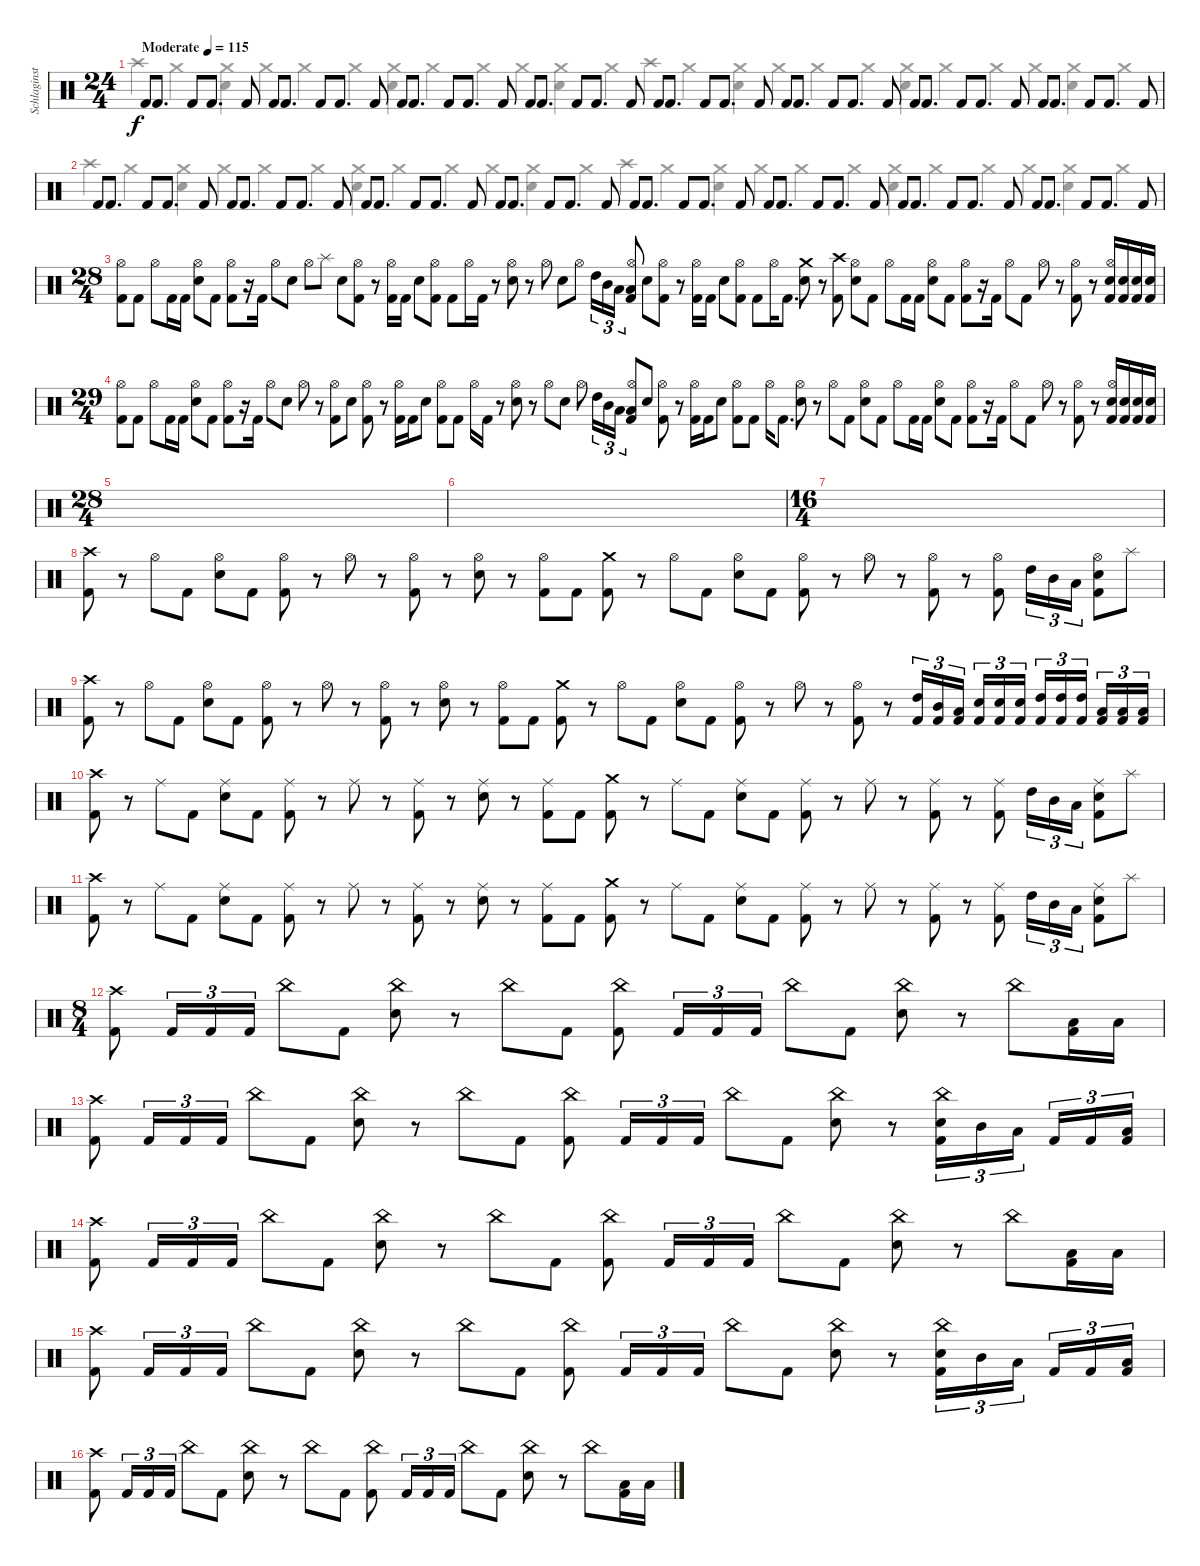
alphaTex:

\track ("Schlaginstrumente - Auswahl" "Schlaginst") {instrument percussion}
\staff {score}
\articulation defaults
\voice
\ts (24 4)
\tempo (115 "Moderate")
\clef neutral
\ks c "Kick (hit) 2".8{dy f} "Kick (hit) 2".8{d} "Kick (hit) 2".8 "Kick (hit) 2".8{d} "Kick (hit) 2".8 "Kick (hit) 2".8 "Kick (hit) 2".8{d} "Kick (hit) 2".8 "Kick (hit) 2".8{d} "Kick (hit) 2".8 "Kick (hit) 2".8 "Kick (hit) 2".8{d} "Kick (hit) 2".8 "Kick (hit) 2".8{d} "Kick (hit) 2".8 "Kick (hit) 2".8 "Kick (hit) 2".8{d} "Kick (hit) 2".8 "Kick (hit) 2".8{d} "Kick (hit) 2".8 "Kick (hit) 2".8 "Kick (hit) 2".8{d} "Kick (hit) 2".8 "Kick (hit) 2".8{d} "Kick (hit) 2".8 "Kick (hit) 2".8 "Kick (hit) 2".8{d} "Kick (hit) 2".8 "Kick (hit) 2".8{d} "Kick (hit) 2".8 "Kick (hit) 2".8 "Kick (hit) 2".8{d} "Kick (hit) 2".8 "Kick (hit) 2".8{d} "Kick (hit) 2".8 "Kick (hit) 2".8 "Kick (hit) 2".8{d} "Kick (hit) 2".8 "Kick (hit) 2".8{d} "Kick (hit) 2".8
|
"Kick (hit) 2".8 "Kick (hit) 2".8{d} "Kick (hit) 2".8 "Kick (hit) 2".8{d} "Kick (hit) 2".8 "Kick (hit) 2".8 "Kick (hit) 2".8{d} "Kick (hit) 2".8 "Kick (hit) 2".8{d} "Kick (hit) 2".8 "Kick (hit) 2".8 "Kick (hit) 2".8{d} "Kick (hit) 2".8 "Kick (hit) 2".8{d} "Kick (hit) 2".8 "Kick (hit) 2".8 "Kick (hit) 2".8{d} "Kick (hit) 2".8 "Kick (hit) 2".8{d} "Kick (hit) 2".8 "Kick (hit) 2".8 "Kick (hit) 2".8{d} "Kick (hit) 2".8 "Kick (hit) 2".8{d} "Kick (hit) 2".8 "Kick (hit) 2".8 "Kick (hit) 2".8{d} "Kick (hit) 2".8 "Kick (hit) 2".8{d} "Kick (hit) 2".8 "Kick (hit) 2".8 "Kick (hit) 2".8{d} "Kick (hit) 2".8 "Kick (hit) 2".8{d} "Kick (hit) 2".8 "Kick (hit) 2".8 "Kick (hit) 2".8{d} "Kick (hit) 2".8 "Kick (hit) 2".8{d} "Kick (hit) 2".8 |
\ts (28 4)
("Hi-Hat (open)" "Kick (hit) 2").8 "Kick (hit) 2".8 "Hi-Hat (open)".8 "Kick (hit) 2".16 "Kick (hit) 2".16 ("Hi-Hat (open)" "Snare (hit) 2").8 "Kick (hit) 2".8 ("Hi-Hat (open)" "Kick (hit) 2").8 r.16 "Kick (hit) 2".16 "Hi-Hat (open)".8 "Snare (hit) 2".8 "Hi-Hat (open)".8 "Splash (hit)".8 "Snare (hit) 2".8 ("Hi-Hat (open)" "Kick (hit) 2").8 r.8 ("Hi-Hat (open)" "Kick (hit) 2").16 "Kick (hit) 2".16 "Snare (hit) 2".8 ("Hi-Hat (open)" "Kick (hit) 2").8 "Kick (hit) 2".8 "Hi-Hat (open)".16 "Kick (hit) 2".16 r.8 ("Hi-Hat (open)" "Snare (hit) 2").8 r.8 "Hi-Hat (open)".8 "Snare (hit) 2".8 "Hi-Hat (open)".8 "High Tom (hit)".16{tu (3 2)} "Mid Tom (hit)".16{tu (3 2)} "Low Tom (hit)".16{tu (3 2)} ("Hi-Hat (open)" "Low Floor Tom (hit)" "Kick (hit) 2").8 "Snare (hit) 2".8 ("Hi-Hat (open)" "Kick (hit) 2").8 r.8 ("Hi-Hat (open)" "Kick (hit) 2").16 "Kick (hit) 2".16 "Snare (hit) 2".8 ("Hi-Hat (open)" "Kick (hit) 2").8 "Kick (hit) 2".8 "Hi-Hat (open)".16 "Kick (hit) 2".8{d} ("Crash medium (hit)" "Snare (hit) 2").8 r.8 ("Crash high (hit)" "Kick (hit) 2").8 ("Hi-Hat (open)" "Snare (hit) 2").8 "Kick (hit) 2".8 "Hi-Hat (open)".8 "Kick (hit) 2".16 "Kick (hit) 2".16 ("Hi-Hat (open)" "Snare (hit) 2").8 "Kick (hit) 2".8 ("Hi-Hat (open)" "Kick (hit) 2").8 r.16 "Kick (hit) 2".16 "Hi-Hat (open)".8 "Kick (hit) 2".8 "Hi-Hat (open)".8 r.8 ("Hi-Hat (open)" "Kick (hit) 2").8 r.8 ("Hi-Hat (open)" "Snare (hit) 2" "Kick (hit) 2").16 ("Snare (hit) 2" "Kick (hit) 2").16 ("Snare (hit) 2" "Kick (hit) 2").16 ("Snare (hit) 2" "Kick (hit) 2").16 |
\ts (29 4)
("Hi-Hat (open)" "Kick (hit) 2").8 "Kick (hit) 2".8 "Hi-Hat (open)".8 "Kick (hit) 2".16 "Kick (hit) 2".16 ("Hi-Hat (open)" "Snare (hit) 2").8 "Kick (hit) 2".8 ("Hi-Hat (open)" "Kick (hit) 2").8 r.16 "Kick (hit) 2".16 "Hi-Hat (open)".8 "Snare (hit) 2".8 "Hi-Hat (open)".8 r.8 ("Hi-Hat (open)" "Kick (hit) 2").8 "Snare (hit) 2".8 ("Hi-Hat (open)" "Kick (hit) 2").8 r.8 ("Hi-Hat (open)" "Kick (hit) 2").16 "Kick (hit) 2".16 "Snare (hit) 2".8 ("Hi-Hat (open)" "Kick (hit) 2").8 "Kick (hit) 2".8 "Hi-Hat (open)".16 "Kick (hit) 2".16 r.8 ("Hi-Hat (open)" "Snare (hit) 2").8 r.8 "Hi-Hat (open)".8 "Snare (hit) 2".8 "Hi-Hat (open)".8 "High Tom (hit)".16{tu (3 2)} "Mid Tom (hit)".16{tu (3 2)} "Low Tom (hit)".16{tu (3 2)} ("Hi-Hat (open)" "Low Floor Tom (hit)" "Kick (hit) 2").8 "Snare (hit) 2".8 ("Hi-Hat (open)" "Kick (hit) 2").8 r.8 ("Hi-Hat (open)" "Kick (hit) 2").16 "Kick (hit) 2".16 "Snare (hit) 2".8 ("Hi-Hat (open)" "Kick (hit) 2").8 "Kick (hit) 2".8 "Hi-Hat (open)".16 "Kick (hit) 2".8{d} ("Hi-Hat (open)" "Snare (hit) 2").8 r.8 "Hi-Hat (open)".8 "Kick (hit) 2".8 ("Hi-Hat (open)" "Snare (hit) 2").8 "Kick (hit) 2".8 "Hi-Hat (open)".8 "Kick (hit) 2".16 "Kick (hit) 2".16 ("Hi-Hat (open)" "Snare (hit) 2").8 "Kick (hit) 2".8 ("Hi-Hat (open)" "Kick (hit) 2").8 r.16 "Kick (hit) 2".16 "Hi-Hat (open)".8 "Kick (hit) 2".8 "Hi-Hat (open)".8 r.8 ("Hi-Hat (open)" "Kick (hit) 2").8 r.8 ("Hi-Hat (open)" "Snare (hit) 2" "Kick (hit) 2").16 ("Snare (hit) 2" "Kick (hit) 2").16 ("Snare (hit) 2" "Kick (hit) 2").16 ("Snare (hit) 2" "Kick (hit) 2").16 |
\ts (28 4)
|
|
\ts (16 4)
|
("Crash high (hit)" "Kick (hit) 2").8 r.8 "Hi-Hat (open)".8 "Kick (hit) 2".8 ("Hi-Hat (open)" "Snare (hit) 2").8 "Kick (hit) 2".8 ("Hi-Hat (open)" "Kick (hit) 2").8 r.8 "Hi-Hat (open)".8 r.8 ("Hi-Hat (open)" "Kick (hit) 2").8 r.8 ("Hi-Hat (open)" "Snare (hit) 2").8 r.8 ("Hi-Hat (open)" "Kick (hit) 2").8 "Kick (hit) 2".8 ("Crash medium (hit)" "Kick (hit) 2").8 r.8 "Hi-Hat (open)".8 "Kick (hit) 2".8 ("Hi-Hat (open)" "Snare (hit) 2").8 "Kick (hit) 2".8 ("Hi-Hat (open)" "Kick (hit) 2").8 r.8 "Hi-Hat (open)".8 r.8 ("Hi-Hat (open)" "Kick (hit) 2").8 r.8 ("Hi-Hat (open)" "Kick (hit) 2").8 "High Tom (hit)".16{tu (3 2)} "Mid Tom (hit)".16{tu (3 2)} "Low Tom (hit)".16{tu (3 2)} ("Hi-Hat (open)" "Snare (hit) 2" "Kick (hit) 2").8 "Splash (hit)".8 |
("Crash high (hit)" "Kick (hit) 2").8 r.8 "Hi-Hat (open)".8 "Kick (hit) 2".8 ("Hi-Hat (open)" "Snare (hit) 2").8 "Kick (hit) 2".8 ("Hi-Hat (open)" "Kick (hit) 2").8 r.8 "Hi-Hat (open)".8 r.8 ("Hi-Hat (open)" "Kick (hit) 2").8 r.8 ("Hi-Hat (open)" "Snare (hit) 2").8 r.8 ("Hi-Hat (open)" "Kick (hit) 2").8 "Kick (hit) 2".8 ("Crash medium (hit)" "Kick (hit) 2").8 r.8 "Hi-Hat (open)".8 "Kick (hit) 2".8 ("Hi-Hat (open)" "Snare (hit) 2").8 "Kick (hit) 2".8 ("Hi-Hat (open)" "Kick (hit) 2").8 r.8 "Hi-Hat (open)".8 r.8 ("Hi-Hat (open)" "Kick (hit) 2").8 r.8 ("High Tom (hit)" "Kick (hit) 2").16{tu (3 2)} ("Mid Tom (hit)" "Kick (hit) 2").16{tu (3 2)} ("Low Tom (hit)" "Kick (hit) 2").16{tu (3 2) beam splitsecondary} ("Snare (hit) 2" "Kick (hit) 2").16{tu (3 2)} ("Snare (hit) 2" "Kick (hit) 2").16{tu (3 2)} ("Snare (hit) 2" "Kick (hit) 2").16{tu (3 2)} ("High Tom (hit)" "Kick (hit) 2").16{tu (3 2)} ("High Tom (hit)" "Kick (hit) 2").16{tu (3 2)} ("High Tom (hit)" "Kick (hit) 2").16{tu (3 2) beam splitsecondary} ("Low Tom (hit)" "Kick (hit) 2").16{tu (3 2)} ("Low Tom (hit)" "Kick (hit) 2").16{tu (3 2)} ("Low Tom (hit)" "Kick (hit) 2").16{tu (3 2)} |
("Crash high (hit)" "Kick (hit) 2").8 r.8 "Ride (middle)".8 "Kick (hit) 2".8 ("Ride (middle)" "Snare (hit) 2").8 "Kick (hit) 2".8 ("Ride (middle)" "Kick (hit) 2").8 r.8 "Ride (middle)".8 r.8 ("Ride (middle)" "Kick (hit) 2").8 r.8 ("Ride (middle)" "Snare (hit) 2").8 r.8 ("Ride (middle)" "Kick (hit) 2").8 "Kick (hit) 2".8 ("Crash medium (hit)" "Kick (hit) 2").8 r.8 "Ride (middle)".8 "Kick (hit) 2".8 ("Ride (middle)" "Snare (hit) 2").8 "Kick (hit) 2".8 ("Ride (middle)" "Kick (hit) 2").8 r.8 "Ride (middle)".8 r.8 ("Ride (middle)" "Kick (hit) 2").8 r.8 ("Ride (middle)" "Kick (hit) 2").8 "High Tom (hit)".16{tu (3 2)} "Mid Tom (hit)".16{tu (3 2)} "Low Tom (hit)".16{tu (3 2)} ("Ride (middle)" "Snare (hit) 2" "Kick (hit) 2").8 "Splash (hit)".8 |
("Crash high (hit)" "Kick (hit) 2").8 r.8 "Ride (middle)".8 "Kick (hit) 2".8 ("Ride (middle)" "Snare (hit) 2").8 "Kick (hit) 2".8 ("Ride (middle)" "Kick (hit) 2").8 r.8 "Ride (middle)".8 r.8 ("Ride (middle)" "Kick (hit) 2").8 r.8 ("Ride (middle)" "Snare (hit) 2").8 r.8 ("Ride (middle)" "Kick (hit) 2").8 "Kick (hit) 2".8 ("Crash medium (hit)" "Kick (hit) 2").8 r.8 "Ride (middle)".8 "Kick (hit) 2".8 ("Ride (middle)" "Snare (hit) 2").8 "Kick (hit) 2".8 ("Ride (middle)" "Kick (hit) 2").8 r.8 "Ride (middle)".8 r.8 ("Ride (middle)" "Kick (hit) 2").8 r.8 ("Ride (middle)" "Kick (hit) 2").8 "High Tom (hit)".16{tu (3 2)} "Mid Tom (hit)".16{tu (3 2)} "Low Tom (hit)".16{tu (3 2)} ("Ride (middle)" "Snare (hit) 2" "Kick (hit) 2").8 "Splash (hit)".8 |
\ts (8 4)
("Crash high (hit)" "Kick (hit) 2").8 "Kick (hit) 2".16{tu (3 2)} "Kick (hit) 2".16{tu (3 2)} "Kick (hit) 2".16{tu (3 2)} "China (hit)".8 "Kick (hit) 2".8 ("China (hit)" "Snare (hit) 2").8 r.8 "China (hit)".8 "Kick (hit) 2".8 ("China (hit)" "Kick (hit) 2").8 "Kick (hit) 2".16{tu (3 2)} "Kick (hit) 2".16{tu (3 2)} "Kick (hit) 2".16{tu (3 2)} "China (hit)".8 "Kick (hit) 2".8 ("China (hit)" "Snare (hit) 2").8 r.8 "China (hit)".8 ("Low Tom (hit)" "Kick (hit) 2").16 "Low Tom (hit)".16 |
("Crash high (hit)" "Kick (hit) 2").8 "Kick (hit) 2".16{tu (3 2)} "Kick (hit) 2".16{tu (3 2)} "Kick (hit) 2".16{tu (3 2)} "China (hit)".8 "Kick (hit) 2".8 ("China (hit)" "Snare (hit) 2").8 r.8 "China (hit)".8 "Kick (hit) 2".8 ("China (hit)" "Kick (hit) 2").8 "Kick (hit) 2".16{tu (3 2)} "Kick (hit) 2".16{tu (3 2)} "Kick (hit) 2".16{tu (3 2)} "China (hit)".8 "Kick (hit) 2".8 ("China (hit)" "Snare (hit) 2").8 r.8 ("China (hit)" "Snare (hit) 2" "Kick (hit) 2").16{tu (3 2)} "Mid Tom (hit)".16{tu (3 2)} "Low Tom (hit)".16{tu (3 2) beam splitsecondary} "Kick (hit) 2".16{tu (3 2)} "Kick (hit) 2".16{tu (3 2)} ("Low Tom (hit)" "Kick (hit) 2").16{tu (3 2)} |
("Crash high (hit)" "Kick (hit) 2").8 "Kick (hit) 2".16{tu (3 2)} "Kick (hit) 2".16{tu (3 2)} "Kick (hit) 2".16{tu (3 2)} "China (hit)".8 "Kick (hit) 2".8 ("China (hit)" "Snare (hit) 2").8 r.8 "China (hit)".8 "Kick (hit) 2".8 ("China (hit)" "Kick (hit) 2").8 "Kick (hit) 2".16{tu (3 2)} "Kick (hit) 2".16{tu (3 2)} "Kick (hit) 2".16{tu (3 2)} "China (hit)".8 "Kick (hit) 2".8 ("China (hit)" "Snare (hit) 2").8 r.8 "China (hit)".8 ("Low Tom (hit)" "Kick (hit) 2").16 "Low Tom (hit)".16 |
("Crash high (hit)" "Kick (hit) 2").8 "Kick (hit) 2".16{tu (3 2)} "Kick (hit) 2".16{tu (3 2)} "Kick (hit) 2".16{tu (3 2)} "China (hit)".8 "Kick (hit) 2".8 ("China (hit)" "Snare (hit) 2").8 r.8 "China (hit)".8 "Kick (hit) 2".8 ("China (hit)" "Kick (hit) 2").8 "Kick (hit) 2".16{tu (3 2)} "Kick (hit) 2".16{tu (3 2)} "Kick (hit) 2".16{tu (3 2)} "China (hit)".8 "Kick (hit) 2".8 ("China (hit)" "Snare (hit) 2").8 r.8 ("China (hit)" "Snare (hit) 2" "Kick (hit) 2").16{tu (3 2)} "Mid Tom (hit)".16{tu (3 2)} "Low Tom (hit)".16{tu (3 2) beam splitsecondary} "Kick (hit) 2".16{tu (3 2)} "Kick (hit) 2".16{tu (3 2)} ("Low Tom (hit)" "Kick (hit) 2").16{tu (3 2)} |
("Crash high (hit)" "Kick (hit) 2").8 "Kick (hit) 2".16{tu (3 2)} "Kick (hit) 2".16{tu (3 2)} "Kick (hit) 2".16{tu (3 2)} "China (hit)".8 "Kick (hit) 2".8 ("China (hit)" "Snare (hit) 2").8 r.8 "China (hit)".8 "Kick (hit) 2".8 ("China (hit)" "Kick (hit) 2").8 "Kick (hit) 2".16{tu (3 2)} "Kick (hit) 2".16{tu (3 2)} "Kick (hit) 2".16{tu (3 2)} "China (hit)".8 "Kick (hit) 2".8 ("China (hit)" "Snare (hit) 2").8 r.8 "China (hit)".8 ("Low Tom (hit)" "Kick (hit) 2").16 "Low Tom (hit)".16
\voice
\clef neutral
\ottava regular
\simile none
\ks c "Crash high (hit)".4{dy f} "Crash medium (hit)".4
("Crash medium (hit)" "Snare (hit) 2").4 "Crash medium (hit)".4 "Crash medium (hit)".4 "Crash medium (hit)".4 ("Crash medium (hit)" "Snare (hit) 2").4 "Crash medium (hit)".4 "Crash medium (hit)".4 "Crash medium (hit)".4 ("Crash medium (hit)" "Snare (hit) 2").4 "Crash medium (hit)".4 "Crash high (hit)".4 "Crash medium (hit)".4 ("Crash medium (hit)" "Snare (hit) 2").4 "Crash medium (hit)".4 "Crash medium (hit)".4 "Crash medium (hit)".4 ("Crash medium (hit)" "Snare (hit) 2").4 "Crash medium (hit)".4 "Crash medium (hit)".4 "Crash medium (hit)".4 ("Crash medium (hit)" "Snare (hit) 2").4 "Crash medium (hit)".4 |
"Crash high (hit)".4 "Crash medium (hit)".4 ("Crash medium (hit)" "Snare (hit) 2").4 "Crash medium (hit)".4 "Crash medium (hit)".4 "Crash medium (hit)".4 ("Crash medium (hit)" "Snare (hit) 2").4 "Crash medium (hit)".4 "Crash medium (hit)".4 "Crash medium (hit)".4 ("Crash medium (hit)" "Snare (hit) 2").4 "Crash medium (hit)".4 "Crash high (hit)".4 "Crash medium (hit)".4 ("Crash medium (hit)" "Snare (hit) 2").4 "Crash medium (hit)".4 "Crash medium (hit)".4 "Crash medium (hit)".4 ("Crash medium (hit)" "Snare (hit) 2").4 "Crash medium (hit)".4 "Crash medium (hit)".4 "Crash medium (hit)".4 ("Crash medium (hit)" "Snare (hit) 2").4 "Crash medium (hit)".4 |
|
|
|
|
|
|
|
|
|
|
|
|
|
